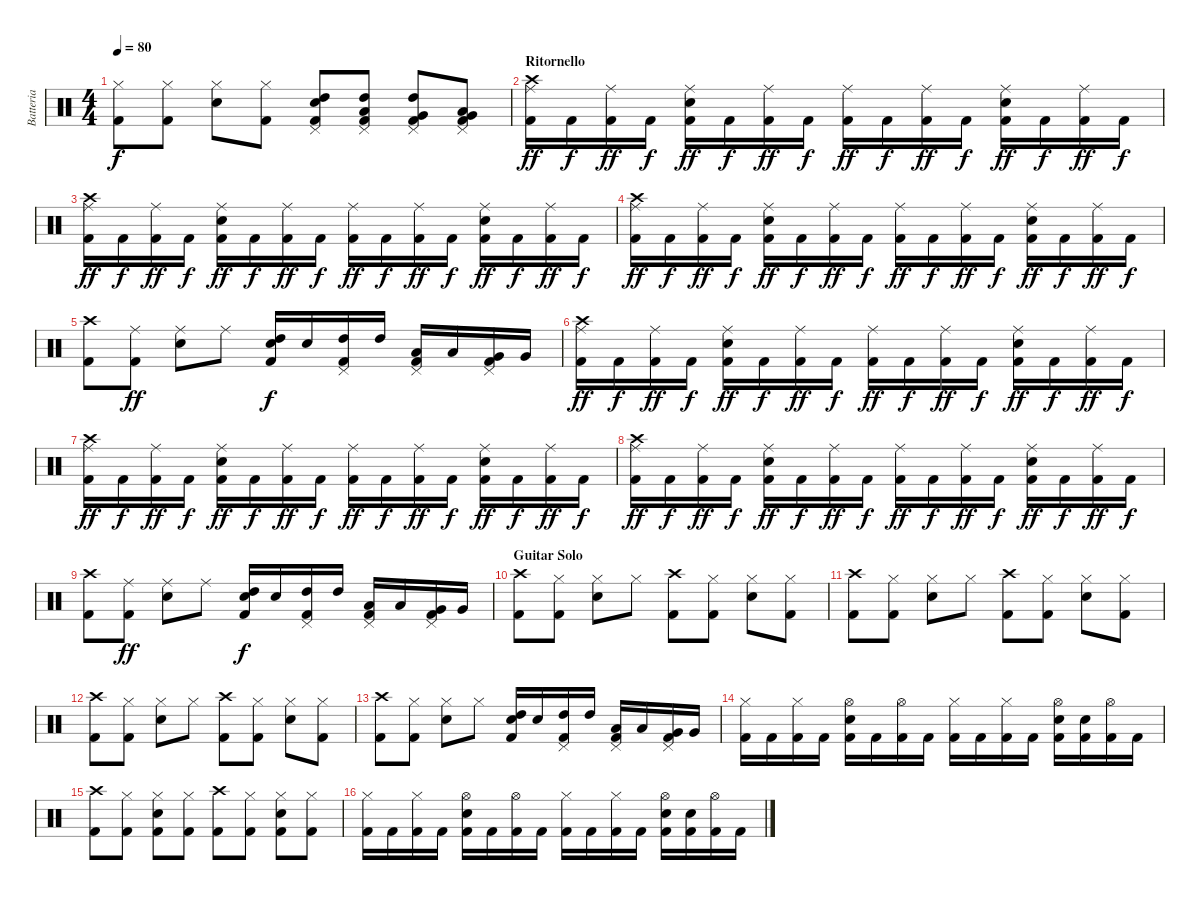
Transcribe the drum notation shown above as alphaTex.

\track ("Batteria" "Batteria") {instrument percussion}
\staff {score}
\articulation defaults
\ts (4 4)
\tempo 80
\clef neutral
\ks c
("Hi-Hat (closed)" "Kick (hit) 2").8{dy f} ("Hi-Hat (closed)" "Kick (hit) 2").8 ("Hi-Hat (closed)" "Electric Snare (hit)").8 ("Hi-Hat (closed)" "Kick (hit) 2").8 ("Pedal Hi-Hat (hit)" "Electric Snare (hit)" "High Tom (hit)" "Kick (hit) 2").8 ("Pedal Hi-Hat (hit)" "High Tom (hit)" "Low Tom (hit)" "Kick (hit) 2").8 ("Pedal Hi-Hat (hit)" "High Tom (hit)" "Very Low Tom (hit)" "Kick (hit) 2").8 ("Pedal Hi-Hat (hit)" "Low Tom (hit)" "Very Low Tom (hit)" "Kick (hit) 2").8 |
\section ("" "Ritornello")
("Crash high (hit)" "Ride (middle)" "Kick (hit) 2").16{dy ff} "Kick (hit) 2".16{dy f} ("Ride (middle)" "Kick (hit) 2").16{dy ff} "Kick (hit) 2".16{dy f} ("Ride (middle)" "Electric Snare (hit)" "Kick (hit) 2").16{dy ff} "Kick (hit) 2".16{dy f} ("Ride (middle)" "Kick (hit) 2").16{dy ff} "Kick (hit) 2".16{dy f} ("Ride (middle)" "Kick (hit) 2").16{dy ff} "Kick (hit) 2".16{dy f} ("Ride (middle)" "Kick (hit) 2").16{dy ff} "Kick (hit) 2".16{dy f} ("Ride (middle)" "Electric Snare (hit)" "Kick (hit) 2").16{dy ff} "Kick (hit) 2".16{dy f} ("Ride (middle)" "Kick (hit) 2").16{dy ff} "Kick (hit) 2".16{dy f} |
("Crash high (hit)" "Ride (middle)" "Kick (hit) 2").16{dy ff} "Kick (hit) 2".16{dy f} ("Ride (middle)" "Kick (hit) 2").16{dy ff} "Kick (hit) 2".16{dy f} ("Ride (middle)" "Electric Snare (hit)" "Kick (hit) 2").16{dy ff} "Kick (hit) 2".16{dy f} ("Ride (middle)" "Kick (hit) 2").16{dy ff} "Kick (hit) 2".16{dy f} ("Ride (middle)" "Kick (hit) 2").16{dy ff} "Kick (hit) 2".16{dy f} ("Ride (middle)" "Kick (hit) 2").16{dy ff} "Kick (hit) 2".16{dy f} ("Ride (middle)" "Electric Snare (hit)" "Kick (hit) 2").16{dy ff} "Kick (hit) 2".16{dy f} ("Ride (middle)" "Kick (hit) 2").16{dy ff} "Kick (hit) 2".16{dy f} |
("Crash high (hit)" "Ride (middle)" "Kick (hit) 2").16{dy ff} "Kick (hit) 2".16{dy f} ("Ride (middle)" "Kick (hit) 2").16{dy ff} "Kick (hit) 2".16{dy f} ("Ride (middle)" "Electric Snare (hit)" "Kick (hit) 2").16{dy ff} "Kick (hit) 2".16{dy f} ("Ride (middle)" "Kick (hit) 2").16{dy ff} "Kick (hit) 2".16{dy f} ("Ride (middle)" "Kick (hit) 2").16{dy ff} "Kick (hit) 2".16{dy f} ("Ride (middle)" "Kick (hit) 2").16{dy ff} "Kick (hit) 2".16{dy f} ("Ride (middle)" "Electric Snare (hit)" "Kick (hit) 2").16{dy ff} "Kick (hit) 2".16{dy f} ("Ride (middle)" "Kick (hit) 2").16{dy ff} "Kick (hit) 2".16{dy f} |
("Crash high (hit)" "Kick (hit) 2").8 ("Ride (middle)" "Kick (hit) 2").8{dy ff} ("Ride (middle)" "Electric Snare (hit)").8 "Ride (middle)".8 ("High Tom (hit)" "Electric Snare (hit)" "Kick (hit) 2").16{dy f} "Electric Snare (hit)".16 ("Pedal Hi-Hat (hit)" "High Tom (hit)" "Kick (hit) 2").16 "High Tom (hit)".16 ("Pedal Hi-Hat (hit)" "Low Tom (hit)" "Kick (hit) 2").16 "Low Tom (hit)".16 ("Pedal Hi-Hat (hit)" "Very Low Tom (hit)" "Kick (hit) 2").16 "Very Low Tom (hit)".16 |
("Crash high (hit)" "Ride (middle)" "Kick (hit) 2").16{dy ff} "Kick (hit) 2".16{dy f} ("Ride (middle)" "Kick (hit) 2").16{dy ff} "Kick (hit) 2".16{dy f} ("Ride (middle)" "Electric Snare (hit)" "Kick (hit) 2").16{dy ff} "Kick (hit) 2".16{dy f} ("Ride (middle)" "Kick (hit) 2").16{dy ff} "Kick (hit) 2".16{dy f} ("Ride (middle)" "Kick (hit) 2").16{dy ff} "Kick (hit) 2".16{dy f} ("Ride (middle)" "Kick (hit) 2").16{dy ff} "Kick (hit) 2".16{dy f} ("Ride (middle)" "Electric Snare (hit)" "Kick (hit) 2").16{dy ff} "Kick (hit) 2".16{dy f} ("Ride (middle)" "Kick (hit) 2").16{dy ff} "Kick (hit) 2".16{dy f} |
("Crash high (hit)" "Ride (middle)" "Kick (hit) 2").16{dy ff} "Kick (hit) 2".16{dy f} ("Ride (middle)" "Kick (hit) 2").16{dy ff} "Kick (hit) 2".16{dy f} ("Ride (middle)" "Electric Snare (hit)" "Kick (hit) 2").16{dy ff} "Kick (hit) 2".16{dy f} ("Ride (middle)" "Kick (hit) 2").16{dy ff} "Kick (hit) 2".16{dy f} ("Ride (middle)" "Kick (hit) 2").16{dy ff} "Kick (hit) 2".16{dy f} ("Ride (middle)" "Kick (hit) 2").16{dy ff} "Kick (hit) 2".16{dy f} ("Ride (middle)" "Electric Snare (hit)" "Kick (hit) 2").16{dy ff} "Kick (hit) 2".16{dy f} ("Ride (middle)" "Kick (hit) 2").16{dy ff} "Kick (hit) 2".16{dy f} |
("Crash high (hit)" "Ride (middle)" "Kick (hit) 2").16{dy ff} "Kick (hit) 2".16{dy f} ("Ride (middle)" "Kick (hit) 2").16{dy ff} "Kick (hit) 2".16{dy f} ("Ride (middle)" "Electric Snare (hit)" "Kick (hit) 2").16{dy ff} "Kick (hit) 2".16{dy f} ("Ride (middle)" "Kick (hit) 2").16{dy ff} "Kick (hit) 2".16{dy f} ("Ride (middle)" "Kick (hit) 2").16{dy ff} "Kick (hit) 2".16{dy f} ("Ride (middle)" "Kick (hit) 2").16{dy ff} "Kick (hit) 2".16{dy f} ("Ride (middle)" "Electric Snare (hit)" "Kick (hit) 2").16{dy ff} "Kick (hit) 2".16{dy f} ("Ride (middle)" "Kick (hit) 2").16{dy ff} "Kick (hit) 2".16{dy f} |
("Crash high (hit)" "Kick (hit) 2").8 ("Ride (middle)" "Kick (hit) 2").8{dy ff} ("Ride (middle)" "Electric Snare (hit)").8 "Ride (middle)".8 ("High Tom (hit)" "Electric Snare (hit)" "Kick (hit) 2").16{dy f} "Electric Snare (hit)".16 ("Pedal Hi-Hat (hit)" "High Tom (hit)" "Kick (hit) 2").16 "High Tom (hit)".16 ("Pedal Hi-Hat (hit)" "Low Tom (hit)" "Kick (hit) 2").16 "Low Tom (hit)".16 ("Pedal Hi-Hat (hit)" "Very Low Tom (hit)" "Kick (hit) 2").16 "Very Low Tom (hit)".16 |
\section ("" "Guitar Solo")
("Crash high (hit)" "Kick (hit) 2").8 ("Hi-Hat (closed)" "Kick (hit) 2").8 ("Hi-Hat (closed)" "Electric Snare (hit)").8 "Hi-Hat (closed)".8 ("Crash high (hit)" "Kick (hit) 2").8 ("Hi-Hat (closed)" "Kick (hit) 2").8 ("Hi-Hat (closed)" "Electric Snare (hit)").8 ("Hi-Hat (closed)" "Kick (hit) 2").8 |
("Crash high (hit)" "Kick (hit) 2").8 ("Hi-Hat (closed)" "Kick (hit) 2").8 ("Hi-Hat (closed)" "Electric Snare (hit)").8 "Hi-Hat (closed)".8 ("Crash high (hit)" "Kick (hit) 2").8 ("Hi-Hat (closed)" "Kick (hit) 2").8 ("Hi-Hat (closed)" "Electric Snare (hit)").8 ("Hi-Hat (closed)" "Kick (hit) 2").8 |
("Crash high (hit)" "Kick (hit) 2").8 ("Hi-Hat (closed)" "Kick (hit) 2").8 ("Hi-Hat (closed)" "Electric Snare (hit)").8 "Hi-Hat (closed)".8 ("Crash high (hit)" "Kick (hit) 2").8 ("Hi-Hat (closed)" "Kick (hit) 2").8 ("Hi-Hat (closed)" "Electric Snare (hit)").8 ("Hi-Hat (closed)" "Kick (hit) 2").8 |
("Crash high (hit)" "Kick (hit) 2").8 ("Hi-Hat (closed)" "Kick (hit) 2").8 ("Hi-Hat (closed)" "Electric Snare (hit)").8 "Hi-Hat (closed)".8 ("High Tom (hit)" "Electric Snare (hit)" "Kick (hit) 2").16 "Electric Snare (hit)".16 ("Pedal Hi-Hat (hit)" "High Tom (hit)" "Kick (hit) 2").16 "High Tom (hit)".16 ("Pedal Hi-Hat (hit)" "Low Tom (hit)" "Kick (hit) 2").16 "Low Tom (hit)".16 ("Pedal Hi-Hat (hit)" "Very Low Tom (hit)" "Kick (hit) 2").16 "Very Low Tom (hit)".16 |
("Hi-Hat (closed)" "Kick (hit) 2").16 "Kick (hit) 2".16 ("Hi-Hat (closed)" "Kick (hit) 2").16 "Kick (hit) 2".16 ("Hi-Hat (open)" "Electric Snare (hit)" "Kick (hit) 2").16 "Kick (hit) 2".16 ("Hi-Hat (open)" "Kick (hit) 2").16 "Kick (hit) 2".16 ("Hi-Hat (closed)" "Kick (hit) 2").16 "Kick (hit) 2".16 ("Hi-Hat (closed)" "Kick (hit) 2").16 "Kick (hit) 2".16 ("Hi-Hat (open)" "Electric Snare (hit)" "Kick (hit) 2").16 ("Electric Snare (hit)" "Kick (hit) 2").16 ("Hi-Hat (open)" "Kick (hit) 2").16 "Kick (hit) 2".16 |
("Crash high (hit)" "Kick (hit) 2").8 ("Hi-Hat (closed)" "Kick (hit) 2").8 ("Hi-Hat (closed)" "Electric Snare (hit)" "Kick (hit) 2").8 ("Hi-Hat (closed)" "Kick (hit) 2").8 ("Crash high (hit)" "Kick (hit) 2").8 ("Hi-Hat (closed)" "Kick (hit) 2").8 ("Hi-Hat (closed)" "Electric Snare (hit)" "Kick (hit) 2").8 ("Hi-Hat (closed)" "Kick (hit) 2").8 |
("Hi-Hat (closed)" "Kick (hit) 2").16 "Kick (hit) 2".16 ("Hi-Hat (closed)" "Kick (hit) 2").16 "Kick (hit) 2".16 ("Hi-Hat (open)" "Electric Snare (hit)" "Kick (hit) 2").16 "Kick (hit) 2".16 ("Hi-Hat (open)" "Kick (hit) 2").16 "Kick (hit) 2".16 ("Hi-Hat (closed)" "Kick (hit) 2").16 "Kick (hit) 2".16 ("Hi-Hat (closed)" "Kick (hit) 2").16 "Kick (hit) 2".16 ("Hi-Hat (open)" "Electric Snare (hit)" "Kick (hit) 2").16 ("Electric Snare (hit)" "Kick (hit) 2").16 ("Hi-Hat (open)" "Kick (hit) 2").16 "Kick (hit) 2".16
